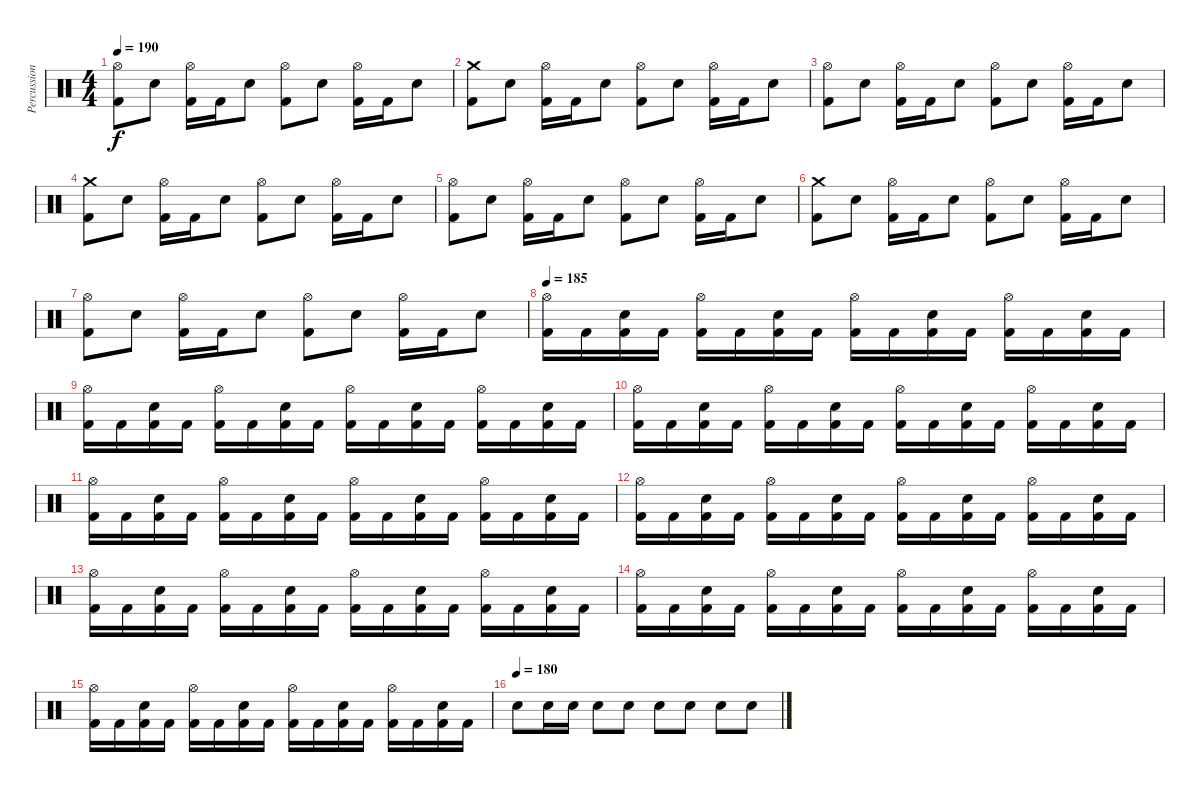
\track ("Percussion" "Percussion") {instrument percussion}
\staff {score}
\articulation defaults
\ts (4 4)
\tempo 190
\clef neutral
\ks c
("Hi-Hat (open)" "Kick (hit) 2").8{dy f} "Snare (hit) 2".8 ("Hi-Hat (open)" "Kick (hit) 2").16 "Kick (hit) 2".16 "Snare (hit) 2".8 ("Hi-Hat (open)" "Kick (hit) 2").8 "Snare (hit) 2".8 ("Hi-Hat (open)" "Kick (hit) 2").16 "Kick (hit) 2".16 "Snare (hit) 2".8 |
("Crash medium (hit)" "Kick (hit) 2").8 "Snare (hit) 2".8 ("Hi-Hat (open)" "Kick (hit) 2").16 "Kick (hit) 2".16 "Snare (hit) 2".8 ("Hi-Hat (open)" "Kick (hit) 2").8 "Snare (hit) 2".8 ("Hi-Hat (open)" "Kick (hit) 2").16 "Kick (hit) 2".16 "Snare (hit) 2".8 |
("Hi-Hat (open)" "Kick (hit) 2").8 "Snare (hit) 2".8 ("Hi-Hat (open)" "Kick (hit) 2").16 "Kick (hit) 2".16 "Snare (hit) 2".8 ("Hi-Hat (open)" "Kick (hit) 2").8 "Snare (hit) 2".8 ("Hi-Hat (open)" "Kick (hit) 2").16 "Kick (hit) 2".16 "Snare (hit) 2".8 |
("Crash medium (hit)" "Kick (hit) 2").8 "Snare (hit) 2".8 ("Hi-Hat (open)" "Kick (hit) 2").16 "Kick (hit) 2".16 "Snare (hit) 2".8 ("Hi-Hat (open)" "Kick (hit) 2").8 "Snare (hit) 2".8 ("Hi-Hat (open)" "Kick (hit) 2").16 "Kick (hit) 2".16 "Snare (hit) 2".8 |
("Hi-Hat (open)" "Kick (hit) 2").8 "Snare (hit) 2".8 ("Hi-Hat (open)" "Kick (hit) 2").16 "Kick (hit) 2".16 "Snare (hit) 2".8 ("Hi-Hat (open)" "Kick (hit) 2").8 "Snare (hit) 2".8 ("Hi-Hat (open)" "Kick (hit) 2").16 "Kick (hit) 2".16 "Snare (hit) 2".8 |
("Crash medium (hit)" "Kick (hit) 2").8 "Snare (hit) 2".8 ("Hi-Hat (open)" "Kick (hit) 2").16 "Kick (hit) 2".16 "Snare (hit) 2".8 ("Hi-Hat (open)" "Kick (hit) 2").8 "Snare (hit) 2".8 ("Hi-Hat (open)" "Kick (hit) 2").16 "Kick (hit) 2".16 "Snare (hit) 2".8 |
("Hi-Hat (open)" "Kick (hit) 2").8 "Snare (hit) 2".8 ("Hi-Hat (open)" "Kick (hit) 2").16 "Kick (hit) 2".16 "Snare (hit) 2".8 ("Hi-Hat (open)" "Kick (hit) 2").8 "Snare (hit) 2".8 ("Hi-Hat (open)" "Kick (hit) 2").16 "Kick (hit) 2".16 "Snare (hit) 2".8 |
\tempo 185
("Hi-Hat (open)" "Kick (hit) 2").16 "Kick (hit) 2".16 ("Snare (hit) 2" "Kick (hit) 2").16 "Kick (hit) 2".16 ("Hi-Hat (open)" "Kick (hit) 2").16 "Kick (hit) 2".16 ("Snare (hit) 2" "Kick (hit) 2").16 "Kick (hit) 2".16 ("Hi-Hat (open)" "Kick (hit) 2").16 "Kick (hit) 2".16 ("Snare (hit) 2" "Kick (hit) 2").16 "Kick (hit) 2".16 ("Hi-Hat (open)" "Kick (hit) 2").16 "Kick (hit) 2".16 ("Snare (hit) 2" "Kick (hit) 2").16 "Kick (hit) 2".16 |
("Hi-Hat (open)" "Kick (hit) 2").16 "Kick (hit) 2".16 ("Snare (hit) 2" "Kick (hit) 2").16 "Kick (hit) 2".16 ("Hi-Hat (open)" "Kick (hit) 2").16 "Kick (hit) 2".16 ("Snare (hit) 2" "Kick (hit) 2").16 "Kick (hit) 2".16 ("Hi-Hat (open)" "Kick (hit) 2").16 "Kick (hit) 2".16 ("Snare (hit) 2" "Kick (hit) 2").16 "Kick (hit) 2".16 ("Hi-Hat (open)" "Kick (hit) 2").16 "Kick (hit) 2".16 ("Snare (hit) 2" "Kick (hit) 2").16 "Kick (hit) 2".16 |
("Hi-Hat (open)" "Kick (hit) 2").16 "Kick (hit) 2".16 ("Snare (hit) 2" "Kick (hit) 2").16 "Kick (hit) 2".16 ("Hi-Hat (open)" "Kick (hit) 2").16 "Kick (hit) 2".16 ("Snare (hit) 2" "Kick (hit) 2").16 "Kick (hit) 2".16 ("Hi-Hat (open)" "Kick (hit) 2").16 "Kick (hit) 2".16 ("Snare (hit) 2" "Kick (hit) 2").16 "Kick (hit) 2".16 ("Hi-Hat (open)" "Kick (hit) 2").16 "Kick (hit) 2".16 ("Snare (hit) 2" "Kick (hit) 2").16 "Kick (hit) 2".16 |
("Hi-Hat (open)" "Kick (hit) 2").16 "Kick (hit) 2".16 ("Snare (hit) 2" "Kick (hit) 2").16 "Kick (hit) 2".16 ("Hi-Hat (open)" "Kick (hit) 2").16 "Kick (hit) 2".16 ("Snare (hit) 2" "Kick (hit) 2").16 "Kick (hit) 2".16 ("Hi-Hat (open)" "Kick (hit) 2").16 "Kick (hit) 2".16 ("Snare (hit) 2" "Kick (hit) 2").16 "Kick (hit) 2".16 ("Hi-Hat (open)" "Kick (hit) 2").16 "Kick (hit) 2".16 ("Snare (hit) 2" "Kick (hit) 2").16 "Kick (hit) 2".16 |
("Hi-Hat (open)" "Kick (hit) 2").16 "Kick (hit) 2".16 ("Snare (hit) 2" "Kick (hit) 2").16 "Kick (hit) 2".16 ("Hi-Hat (open)" "Kick (hit) 2").16 "Kick (hit) 2".16 ("Snare (hit) 2" "Kick (hit) 2").16 "Kick (hit) 2".16 ("Hi-Hat (open)" "Kick (hit) 2").16 "Kick (hit) 2".16 ("Snare (hit) 2" "Kick (hit) 2").16 "Kick (hit) 2".16 ("Hi-Hat (open)" "Kick (hit) 2").16 "Kick (hit) 2".16 ("Snare (hit) 2" "Kick (hit) 2").16 "Kick (hit) 2".16 |
("Hi-Hat (open)" "Kick (hit) 2").16 "Kick (hit) 2".16 ("Snare (hit) 2" "Kick (hit) 2").16 "Kick (hit) 2".16 ("Hi-Hat (open)" "Kick (hit) 2").16 "Kick (hit) 2".16 ("Snare (hit) 2" "Kick (hit) 2").16 "Kick (hit) 2".16 ("Hi-Hat (open)" "Kick (hit) 2").16 "Kick (hit) 2".16 ("Snare (hit) 2" "Kick (hit) 2").16 "Kick (hit) 2".16 ("Hi-Hat (open)" "Kick (hit) 2").16 "Kick (hit) 2".16 ("Snare (hit) 2" "Kick (hit) 2").16 "Kick (hit) 2".16 |
("Hi-Hat (open)" "Kick (hit) 2").16 "Kick (hit) 2".16 ("Snare (hit) 2" "Kick (hit) 2").16 "Kick (hit) 2".16 ("Hi-Hat (open)" "Kick (hit) 2").16 "Kick (hit) 2".16 ("Snare (hit) 2" "Kick (hit) 2").16 "Kick (hit) 2".16 ("Hi-Hat (open)" "Kick (hit) 2").16 "Kick (hit) 2".16 ("Snare (hit) 2" "Kick (hit) 2").16 "Kick (hit) 2".16 ("Hi-Hat (open)" "Kick (hit) 2").16 "Kick (hit) 2".16 ("Snare (hit) 2" "Kick (hit) 2").16 "Kick (hit) 2".16 |
("Hi-Hat (open)" "Kick (hit) 2").16 "Kick (hit) 2".16 ("Snare (hit) 2" "Kick (hit) 2").16 "Kick (hit) 2".16 ("Hi-Hat (open)" "Kick (hit) 2").16 "Kick (hit) 2".16 ("Snare (hit) 2" "Kick (hit) 2").16 "Kick (hit) 2".16 ("Hi-Hat (open)" "Kick (hit) 2").16 "Kick (hit) 2".16 ("Snare (hit) 2" "Kick (hit) 2").16 "Kick (hit) 2".16 ("Hi-Hat (open)" "Kick (hit) 2").16 "Kick (hit) 2".16 ("Snare (hit) 2" "Kick (hit) 2").16 "Kick (hit) 2".16 |
\tempo (180)
"Snare (hit) 2".8 "Snare (hit) 2".16 "Snare (hit) 2".16 "Snare (hit) 2".8 "Snare (hit) 2".8 "Snare (hit) 2".8 "Snare (hit) 2".8 "Snare (hit) 2".8 "Snare (hit) 2".8
